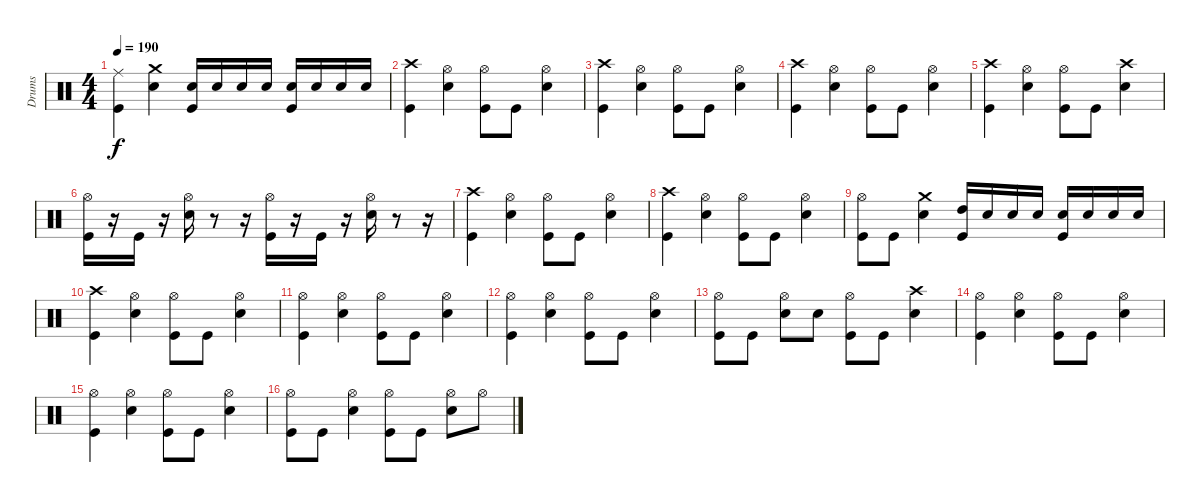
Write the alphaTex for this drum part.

\track ("Drums" "Drums") {instrument percussion}
\staff {score}
\articulation defaults
\ts (4 4)
\tempo 190
\clef neutral
\ks c
("Kick (hit)" "Ride (middle)").4{dy f} ("Electric Snare (hit)" "Crash medium (hit)").4 ("Kick (hit)" "Electric Snare (hit)").16 "Electric Snare (hit)".16 "Electric Snare (hit)".16 "Electric Snare (hit)".16 ("Kick (hit)" "Electric Snare (hit)").16 "Electric Snare (hit)".16 "Electric Snare (hit)".16 "Electric Snare (hit)".16 |
("Kick (hit)" "Crash high (hit)").4 ("Electric Snare (hit)" "Hi-Hat (open)").4 ("Kick (hit)" "Hi-Hat (open)").8 "Kick (hit)".8 ("Electric Snare (hit)" "Hi-Hat (open)").4 |
("Kick (hit)" "Crash high (hit)").4 ("Electric Snare (hit)" "Hi-Hat (open)").4 ("Kick (hit)" "Hi-Hat (open)").8 "Kick (hit)".8 ("Electric Snare (hit)" "Hi-Hat (open)").4 |
("Kick (hit)" "Crash high (hit)").4 ("Electric Snare (hit)" "Hi-Hat (open)").4 ("Kick (hit)" "Hi-Hat (open)").8 "Kick (hit)".8 ("Electric Snare (hit)" "Hi-Hat (open)").4 |
("Kick (hit)" "Crash high (hit)").4 ("Electric Snare (hit)" "Hi-Hat (open)").4 ("Kick (hit)" "Hi-Hat (open)").8 "Kick (hit)".8 ("Electric Snare (hit)" "Crash high (hit)").4 |
("Kick (hit)" "Hi-Hat (open)").16 r.16 "Kick (hit)".16 r.16 ("Electric Snare (hit)" "Hi-Hat (open)").16 r.8 r.16 ("Kick (hit)" "Hi-Hat (open)").16 r.16 "Kick (hit)".16 r.16 ("Electric Snare (hit)" "Hi-Hat (open)").16 r.8 r.16 |
("Kick (hit)" "Crash high (hit)").4 ("Electric Snare (hit)" "Hi-Hat (open)").4 ("Kick (hit)" "Hi-Hat (open)").8 "Kick (hit)".8 ("Electric Snare (hit)" "Hi-Hat (open)").4 |
("Kick (hit)" "Crash high (hit)").4 ("Electric Snare (hit)" "Hi-Hat (open)").4 ("Kick (hit)" "Hi-Hat (open)").8 "Kick (hit)".8 ("Electric Snare (hit)" "Hi-Hat (open)").4 |
("Kick (hit)" "Hi-Hat (open)").8 "Kick (hit)".8 ("Electric Snare (hit)" "Crash medium (hit)").4 ("Kick (hit)" "High Tom (hit)").16 "Electric Snare (hit)".16 "Electric Snare (hit)".16 "Electric Snare (hit)".16 ("Kick (hit)" "Electric Snare (hit)").16 "Electric Snare (hit)".16 "Electric Snare (hit)".16 "Electric Snare (hit)".16 |
("Kick (hit)" "Crash high (hit)").4 ("Electric Snare (hit)" "Hi-Hat (open)").4 ("Kick (hit)" "Hi-Hat (open)").8 "Kick (hit)".8 ("Electric Snare (hit)" "Hi-Hat (open)").4 |
("Kick (hit)" "Hi-Hat (open)").4 ("Electric Snare (hit)" "Hi-Hat (open)").4 ("Kick (hit)" "Hi-Hat (open)").8 "Kick (hit)".8 ("Electric Snare (hit)" "Hi-Hat (open)").4 |
("Kick (hit)" "Hi-Hat (open)").4 ("Electric Snare (hit)" "Hi-Hat (open)").4 ("Kick (hit)" "Hi-Hat (open)").8 "Kick (hit)".8 ("Electric Snare (hit)" "Hi-Hat (open)").4 |
("Kick (hit)" "Hi-Hat (open)").8 "Kick (hit)".8 ("Electric Snare (hit)" "Hi-Hat (open)").8 "Electric Snare (hit)".8 ("Kick (hit)" "Hi-Hat (open)").8 "Kick (hit)".8 ("Electric Snare (hit)" "Crash high (hit)").4 |
("Kick (hit)" "Hi-Hat (open)").4 ("Electric Snare (hit)" "Hi-Hat (open)").4 ("Kick (hit)" "Hi-Hat (open)").8 "Kick (hit)".8 ("Electric Snare (hit)" "Hi-Hat (open)").4 |
("Kick (hit)" "Hi-Hat (open)").4 ("Electric Snare (hit)" "Hi-Hat (open)").4 ("Kick (hit)" "Hi-Hat (open)").8 "Kick (hit)".8 ("Electric Snare (hit)" "Hi-Hat (open)").4 |
("Kick (hit)" "Hi-Hat (open)").8 "Kick (hit)".8 ("Electric Snare (hit)" "Hi-Hat (open)").4 ("Kick (hit)" "Hi-Hat (open)").8 "Kick (hit)".8 ("Electric Snare (hit)" "Hi-Hat (open)").8 "Hi-Hat (open)".8
